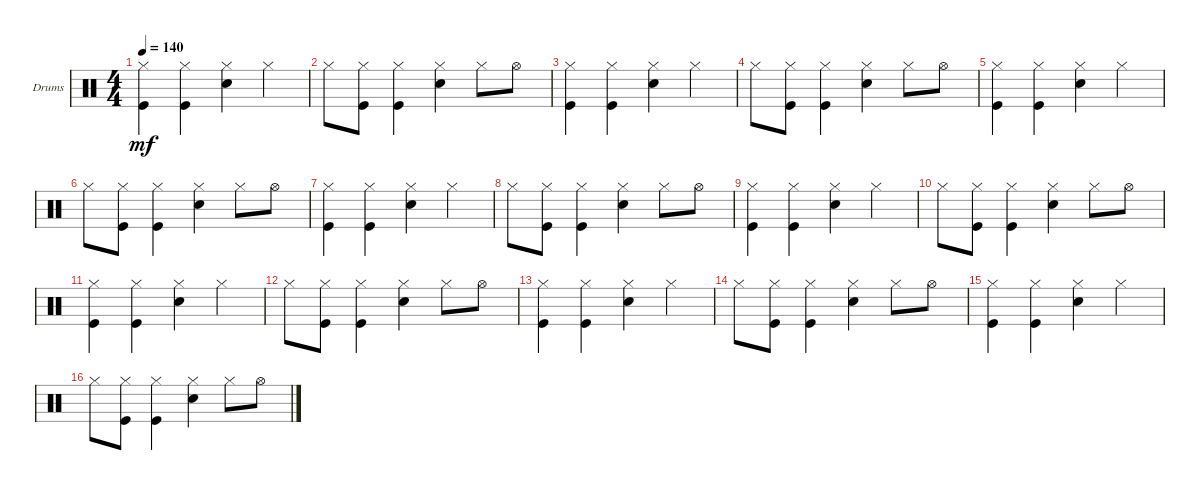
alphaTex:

\defaultSystemsLayout 4
\bracketExtendMode groupsimilarinstruments
\firstSystemTrackNameOrientation horizontal
\otherSystemsTrackNameOrientation horizontal
\track ("Drumkit" "Drums") {instrument percussion}
\staff {score}
\articulation defaults
\ts (4 4)
\tempo 140
\clef neutral
\ks c
("Hi-Hat (closed)" "Kick (hit)").4{dy mf} ("Hi-Hat (closed)" "Kick (hit)").4 ("Hi-Hat (closed)" "Snare (hit) 2").4 "Hi-Hat (closed)".4 |
"Hi-Hat (closed)".8 ("Hi-Hat (closed)" "Kick (hit)").8 ("Hi-Hat (closed)" "Kick (hit)").4 ("Snare (hit) 2" "Hi-Hat (closed)").4 "Hi-Hat (closed)".8 "Hi-Hat (open)".8 |
("Hi-Hat (closed)" "Kick (hit)").4 ("Hi-Hat (closed)" "Kick (hit)").4 ("Hi-Hat (closed)" "Snare (hit) 2").4 "Hi-Hat (closed)".4 |
"Hi-Hat (closed)".8 ("Hi-Hat (closed)" "Kick (hit)").8 ("Hi-Hat (closed)" "Kick (hit)").4 ("Snare (hit) 2" "Hi-Hat (closed)").4 "Hi-Hat (closed)".8 "Hi-Hat (open)".8 |
("Hi-Hat (closed)" "Kick (hit)").4 ("Hi-Hat (closed)" "Kick (hit)").4 ("Hi-Hat (closed)" "Snare (hit) 2").4 "Hi-Hat (closed)".4 |
"Hi-Hat (closed)".8 ("Hi-Hat (closed)" "Kick (hit)").8 ("Hi-Hat (closed)" "Kick (hit)").4 ("Snare (hit) 2" "Hi-Hat (closed)").4 "Hi-Hat (closed)".8 "Hi-Hat (open)".8 |
("Hi-Hat (closed)" "Kick (hit)").4 ("Hi-Hat (closed)" "Kick (hit)").4 ("Hi-Hat (closed)" "Snare (hit) 2").4 "Hi-Hat (closed)".4 |
"Hi-Hat (closed)".8 ("Hi-Hat (closed)" "Kick (hit)").8 ("Hi-Hat (closed)" "Kick (hit)").4 ("Snare (hit) 2" "Hi-Hat (closed)").4 "Hi-Hat (closed)".8 "Hi-Hat (open)".8 |
("Hi-Hat (closed)" "Kick (hit)").4 ("Hi-Hat (closed)" "Kick (hit)").4 ("Hi-Hat (closed)" "Snare (hit) 2").4 "Hi-Hat (closed)".4 |
"Hi-Hat (closed)".8 ("Hi-Hat (closed)" "Kick (hit)").8 ("Hi-Hat (closed)" "Kick (hit)").4 ("Snare (hit) 2" "Hi-Hat (closed)").4 "Hi-Hat (closed)".8 "Hi-Hat (open)".8 |
("Hi-Hat (closed)" "Kick (hit)").4 ("Hi-Hat (closed)" "Kick (hit)").4 ("Hi-Hat (closed)" "Snare (hit) 2").4 "Hi-Hat (closed)".4 |
"Hi-Hat (closed)".8 ("Hi-Hat (closed)" "Kick (hit)").8 ("Hi-Hat (closed)" "Kick (hit)").4 ("Snare (hit) 2" "Hi-Hat (closed)").4 "Hi-Hat (closed)".8 "Hi-Hat (open)".8 |
("Hi-Hat (closed)" "Kick (hit)").4 ("Hi-Hat (closed)" "Kick (hit)").4 ("Hi-Hat (closed)" "Snare (hit) 2").4 "Hi-Hat (closed)".4 |
"Hi-Hat (closed)".8 ("Hi-Hat (closed)" "Kick (hit)").8 ("Hi-Hat (closed)" "Kick (hit)").4 ("Snare (hit) 2" "Hi-Hat (closed)").4 "Hi-Hat (closed)".8 "Hi-Hat (open)".8 |
("Hi-Hat (closed)" "Kick (hit)").4 ("Hi-Hat (closed)" "Kick (hit)").4 ("Hi-Hat (closed)" "Snare (hit) 2").4 "Hi-Hat (closed)".4 |
"Hi-Hat (closed)".8 ("Hi-Hat (closed)" "Kick (hit)").8 ("Hi-Hat (closed)" "Kick (hit)").4 ("Snare (hit) 2" "Hi-Hat (closed)").4 "Hi-Hat (closed)".8 "Hi-Hat (open)".8
